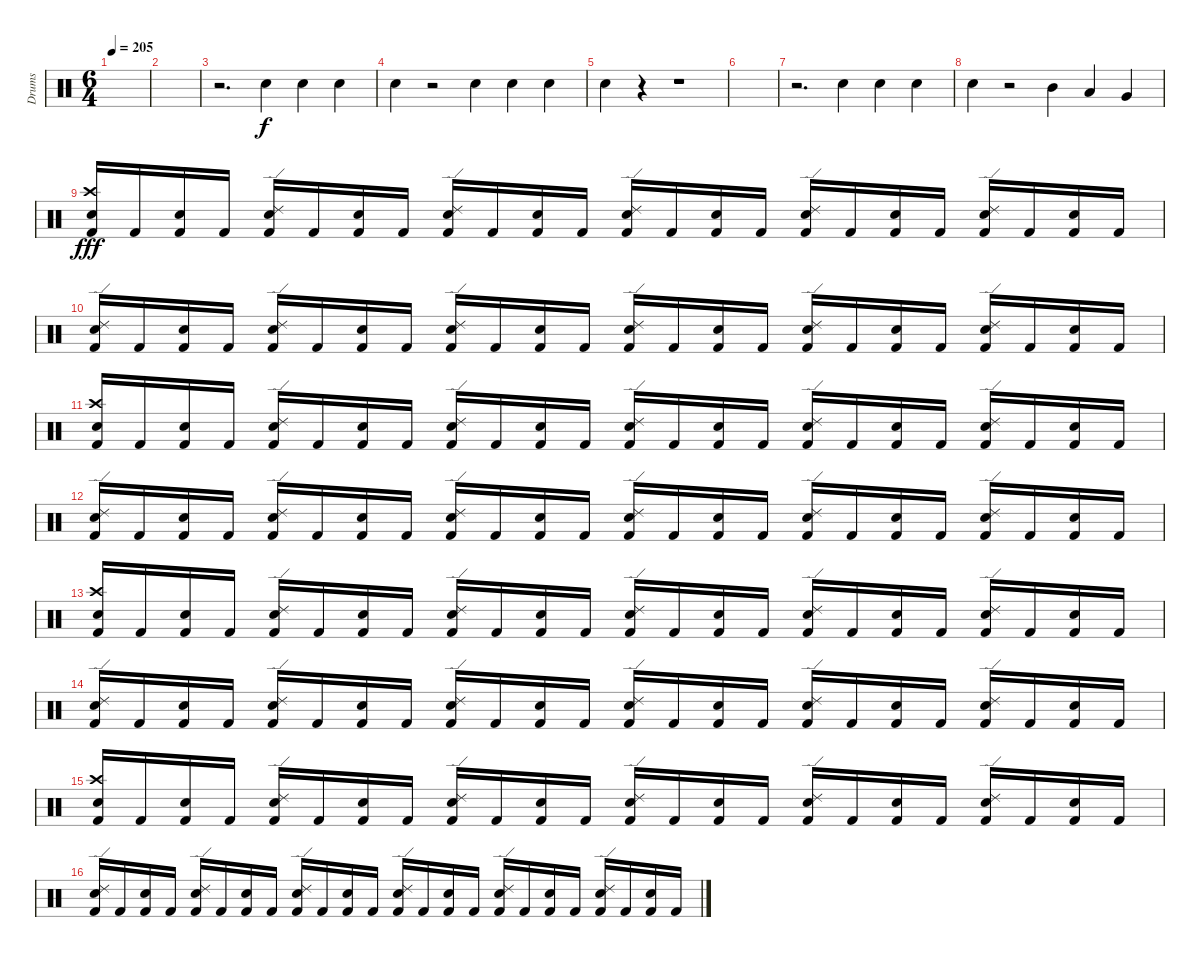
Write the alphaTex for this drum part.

\track ("Drums" "Drums") {instrument percussion}
\staff {score}
\articulation defaults
\ts (6 4)
\tempo 205
\clef neutral
\ks c
|
|
r.2{d} "Snare (hit) 2".4 "Snare (hit) 2".4 "Snare (hit) 2".4 |
"Snare (hit) 2".4 r.2 "Snare (hit) 2".4 "Snare (hit) 2".4 "Snare (hit) 2".4 |
"Snare (hit) 2".4 r.4 r.1 |
|
r.2{d} "Snare (hit) 2".4 "Snare (hit) 2".4 "Snare (hit) 2".4 |
"Snare (hit) 2".4 r.2 "Mid Tom (hit)".4 "Low Tom (hit)".4 "Very Low Tom (hit)".4 |
("Crash high (hit)" "Snare (hit) 2" "Kick (hit) 2").16{dy fff} "Kick (hit) 2".16 ("Snare (hit) 2" "Kick (hit) 2").16 "Kick (hit) 2".16 ("Ride (edge) 2" "Snare (hit) 2" "Kick (hit) 2").16 "Kick (hit) 2".16 ("Snare (hit) 2" "Kick (hit) 2").16 "Kick (hit) 2".16 ("Ride (edge) 2" "Snare (hit) 2" "Kick (hit) 2").16 "Kick (hit) 2".16 ("Snare (hit) 2" "Kick (hit) 2").16 "Kick (hit) 2".16 ("Ride (edge) 2" "Snare (hit) 2" "Kick (hit) 2").16 "Kick (hit) 2".16 ("Snare (hit) 2" "Kick (hit) 2").16 "Kick (hit) 2".16 ("Ride (edge) 2" "Snare (hit) 2" "Kick (hit) 2").16 "Kick (hit) 2".16 ("Snare (hit) 2" "Kick (hit) 2").16 "Kick (hit) 2".16 ("Ride (edge) 2" "Snare (hit) 2" "Kick (hit) 2").16 "Kick (hit) 2".16 ("Snare (hit) 2" "Kick (hit) 2").16 "Kick (hit) 2".16 |
("Ride (edge) 2" "Snare (hit) 2" "Kick (hit) 2").16 "Kick (hit) 2".16 ("Snare (hit) 2" "Kick (hit) 2").16 "Kick (hit) 2".16 ("Ride (edge) 2" "Snare (hit) 2" "Kick (hit) 2").16 "Kick (hit) 2".16 ("Snare (hit) 2" "Kick (hit) 2").16 "Kick (hit) 2".16 ("Ride (edge) 2" "Snare (hit) 2" "Kick (hit) 2").16 "Kick (hit) 2".16 ("Snare (hit) 2" "Kick (hit) 2").16 "Kick (hit) 2".16 ("Ride (edge) 2" "Snare (hit) 2" "Kick (hit) 2").16 "Kick (hit) 2".16 ("Snare (hit) 2" "Kick (hit) 2").16 "Kick (hit) 2".16 ("Ride (edge) 2" "Snare (hit) 2" "Kick (hit) 2").16 "Kick (hit) 2".16 ("Snare (hit) 2" "Kick (hit) 2").16 "Kick (hit) 2".16 ("Ride (edge) 2" "Snare (hit) 2" "Kick (hit) 2").16 "Kick (hit) 2".16 ("Snare (hit) 2" "Kick (hit) 2").16 "Kick (hit) 2".16 |
("Crash high (hit)" "Snare (hit) 2" "Kick (hit) 2").16 "Kick (hit) 2".16 ("Snare (hit) 2" "Kick (hit) 2").16 "Kick (hit) 2".16 ("Ride (edge) 2" "Snare (hit) 2" "Kick (hit) 2").16 "Kick (hit) 2".16 ("Snare (hit) 2" "Kick (hit) 2").16 "Kick (hit) 2".16 ("Ride (edge) 2" "Snare (hit) 2" "Kick (hit) 2").16 "Kick (hit) 2".16 ("Snare (hit) 2" "Kick (hit) 2").16 "Kick (hit) 2".16 ("Ride (edge) 2" "Snare (hit) 2" "Kick (hit) 2").16 "Kick (hit) 2".16 ("Snare (hit) 2" "Kick (hit) 2").16 "Kick (hit) 2".16 ("Ride (edge) 2" "Snare (hit) 2" "Kick (hit) 2").16 "Kick (hit) 2".16 ("Snare (hit) 2" "Kick (hit) 2").16 "Kick (hit) 2".16 ("Ride (edge) 2" "Snare (hit) 2" "Kick (hit) 2").16 "Kick (hit) 2".16 ("Snare (hit) 2" "Kick (hit) 2").16 "Kick (hit) 2".16 |
("Ride (edge) 2" "Snare (hit) 2" "Kick (hit) 2").16 "Kick (hit) 2".16 ("Snare (hit) 2" "Kick (hit) 2").16 "Kick (hit) 2".16 ("Ride (edge) 2" "Snare (hit) 2" "Kick (hit) 2").16 "Kick (hit) 2".16 ("Snare (hit) 2" "Kick (hit) 2").16 "Kick (hit) 2".16 ("Ride (edge) 2" "Snare (hit) 2" "Kick (hit) 2").16 "Kick (hit) 2".16 ("Snare (hit) 2" "Kick (hit) 2").16 "Kick (hit) 2".16 ("Ride (edge) 2" "Snare (hit) 2" "Kick (hit) 2").16 "Kick (hit) 2".16 ("Snare (hit) 2" "Kick (hit) 2").16 "Kick (hit) 2".16 ("Ride (edge) 2" "Snare (hit) 2" "Kick (hit) 2").16 "Kick (hit) 2".16 ("Snare (hit) 2" "Kick (hit) 2").16 "Kick (hit) 2".16 ("Ride (edge) 2" "Snare (hit) 2" "Kick (hit) 2").16 "Kick (hit) 2".16 ("Snare (hit) 2" "Kick (hit) 2").16 "Kick (hit) 2".16 |
("Crash high (hit)" "Snare (hit) 2" "Kick (hit) 2").16 "Kick (hit) 2".16 ("Snare (hit) 2" "Kick (hit) 2").16 "Kick (hit) 2".16 ("Ride (edge) 2" "Snare (hit) 2" "Kick (hit) 2").16 "Kick (hit) 2".16 ("Snare (hit) 2" "Kick (hit) 2").16 "Kick (hit) 2".16 ("Ride (edge) 2" "Snare (hit) 2" "Kick (hit) 2").16 "Kick (hit) 2".16 ("Snare (hit) 2" "Kick (hit) 2").16 "Kick (hit) 2".16 ("Ride (edge) 2" "Snare (hit) 2" "Kick (hit) 2").16 "Kick (hit) 2".16 ("Snare (hit) 2" "Kick (hit) 2").16 "Kick (hit) 2".16 ("Ride (edge) 2" "Snare (hit) 2" "Kick (hit) 2").16 "Kick (hit) 2".16 ("Snare (hit) 2" "Kick (hit) 2").16 "Kick (hit) 2".16 ("Ride (edge) 2" "Snare (hit) 2" "Kick (hit) 2").16 "Kick (hit) 2".16 ("Snare (hit) 2" "Kick (hit) 2").16 "Kick (hit) 2".16 |
("Ride (edge) 2" "Snare (hit) 2" "Kick (hit) 2").16 "Kick (hit) 2".16 ("Snare (hit) 2" "Kick (hit) 2").16 "Kick (hit) 2".16 ("Ride (edge) 2" "Snare (hit) 2" "Kick (hit) 2").16 "Kick (hit) 2".16 ("Snare (hit) 2" "Kick (hit) 2").16 "Kick (hit) 2".16 ("Ride (edge) 2" "Snare (hit) 2" "Kick (hit) 2").16 "Kick (hit) 2".16 ("Snare (hit) 2" "Kick (hit) 2").16 "Kick (hit) 2".16 ("Ride (edge) 2" "Snare (hit) 2" "Kick (hit) 2").16 "Kick (hit) 2".16 ("Snare (hit) 2" "Kick (hit) 2").16 "Kick (hit) 2".16 ("Ride (edge) 2" "Snare (hit) 2" "Kick (hit) 2").16 "Kick (hit) 2".16 ("Snare (hit) 2" "Kick (hit) 2").16 "Kick (hit) 2".16 ("Ride (edge) 2" "Snare (hit) 2" "Kick (hit) 2").16 "Kick (hit) 2".16 ("Snare (hit) 2" "Kick (hit) 2").16 "Kick (hit) 2".16 |
("Crash high (hit)" "Snare (hit) 2" "Kick (hit) 2").16 "Kick (hit) 2".16 ("Snare (hit) 2" "Kick (hit) 2").16 "Kick (hit) 2".16 ("Ride (edge) 2" "Snare (hit) 2" "Kick (hit) 2").16 "Kick (hit) 2".16 ("Snare (hit) 2" "Kick (hit) 2").16 "Kick (hit) 2".16 ("Ride (edge) 2" "Snare (hit) 2" "Kick (hit) 2").16 "Kick (hit) 2".16 ("Snare (hit) 2" "Kick (hit) 2").16 "Kick (hit) 2".16 ("Ride (edge) 2" "Snare (hit) 2" "Kick (hit) 2").16 "Kick (hit) 2".16 ("Snare (hit) 2" "Kick (hit) 2").16 "Kick (hit) 2".16 ("Ride (edge) 2" "Snare (hit) 2" "Kick (hit) 2").16 "Kick (hit) 2".16 ("Snare (hit) 2" "Kick (hit) 2").16 "Kick (hit) 2".16 ("Ride (edge) 2" "Snare (hit) 2" "Kick (hit) 2").16 "Kick (hit) 2".16 ("Snare (hit) 2" "Kick (hit) 2").16 "Kick (hit) 2".16 |
("Ride (edge) 2" "Snare (hit) 2" "Kick (hit) 2").16 "Kick (hit) 2".16 ("Snare (hit) 2" "Kick (hit) 2").16 "Kick (hit) 2".16 ("Ride (edge) 2" "Snare (hit) 2" "Kick (hit) 2").16 "Kick (hit) 2".16 ("Snare (hit) 2" "Kick (hit) 2").16 "Kick (hit) 2".16 ("Ride (edge) 2" "Snare (hit) 2" "Kick (hit) 2").16 "Kick (hit) 2".16 ("Snare (hit) 2" "Kick (hit) 2").16 "Kick (hit) 2".16 ("Ride (edge) 2" "Snare (hit) 2" "Kick (hit) 2").16 "Kick (hit) 2".16 ("Snare (hit) 2" "Kick (hit) 2").16 "Kick (hit) 2".16 ("Ride (edge) 2" "Snare (hit) 2" "Kick (hit) 2").16 "Kick (hit) 2".16 ("Snare (hit) 2" "Kick (hit) 2").16 "Kick (hit) 2".16 ("Ride (edge) 2" "Snare (hit) 2" "Kick (hit) 2").16 "Kick (hit) 2".16 ("Snare (hit) 2" "Kick (hit) 2").16 "Kick (hit) 2".16
